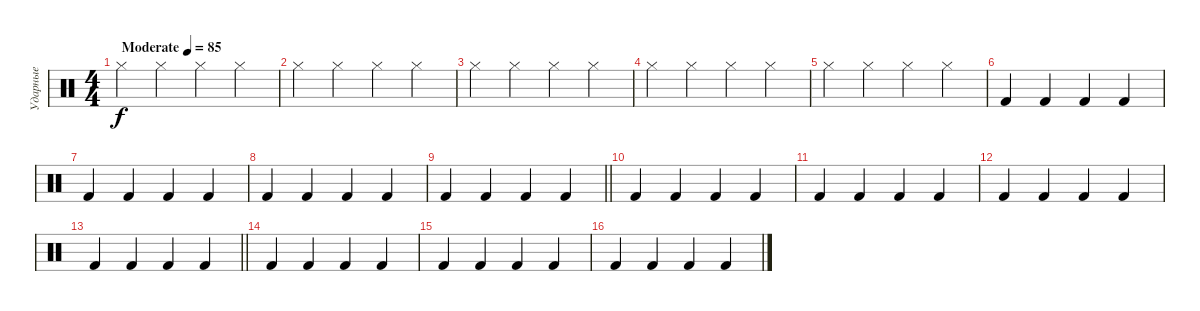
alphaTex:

\track ("Ударные" "Ударные") {instrument percussion}
\staff {score}
\articulation defaults
\ts (4 4)
\tempo (85 "Moderate")
\clef neutral
\ks c "Hi-Hat (closed)".4{dy f} "Hi-Hat (closed)".4 "Hi-Hat (closed)".4 "Hi-Hat (closed)".4
|
"Hi-Hat (closed)".4 "Hi-Hat (closed)".4 "Hi-Hat (closed)".4 "Hi-Hat (closed)".4 |
"Hi-Hat (closed)".4 "Hi-Hat (closed)".4 "Hi-Hat (closed)".4 "Hi-Hat (closed)".4 |
"Hi-Hat (closed)".4 "Hi-Hat (closed)".4 "Hi-Hat (closed)".4 "Hi-Hat (closed)".4 |
"Hi-Hat (closed)".4 "Hi-Hat (closed)".4 "Hi-Hat (closed)".4 "Hi-Hat (closed)".4 |
"Kick (hit) 2".4 "Kick (hit) 2".4 "Kick (hit) 2".4 "Kick (hit) 2".4 |
"Kick (hit) 2".4 "Kick (hit) 2".4 "Kick (hit) 2".4 "Kick (hit) 2".4 |
"Kick (hit) 2".4 "Kick (hit) 2".4 "Kick (hit) 2".4 "Kick (hit) 2".4 |
\barLineRight lightlight "Kick (hit) 2".4 "Kick (hit) 2".4 "Kick (hit) 2".4 "Kick (hit) 2".4
|
\section ("" "")
"Kick (hit) 2".4 "Kick (hit) 2".4 "Kick (hit) 2".4 "Kick (hit) 2".4 |
"Kick (hit) 2".4 "Kick (hit) 2".4 "Kick (hit) 2".4 "Kick (hit) 2".4 |
"Kick (hit) 2".4 "Kick (hit) 2".4 "Kick (hit) 2".4 "Kick (hit) 2".4 |
\barLineRight lightlight "Kick (hit) 2".4 "Kick (hit) 2".4 "Kick (hit) 2".4 "Kick (hit) 2".4
|
"Kick (hit) 2".4 "Kick (hit) 2".4 "Kick (hit) 2".4 "Kick (hit) 2".4 |
"Kick (hit) 2".4 "Kick (hit) 2".4 "Kick (hit) 2".4 "Kick (hit) 2".4 |
"Kick (hit) 2".4 "Kick (hit) 2".4 "Kick (hit) 2".4 "Kick (hit) 2".4
